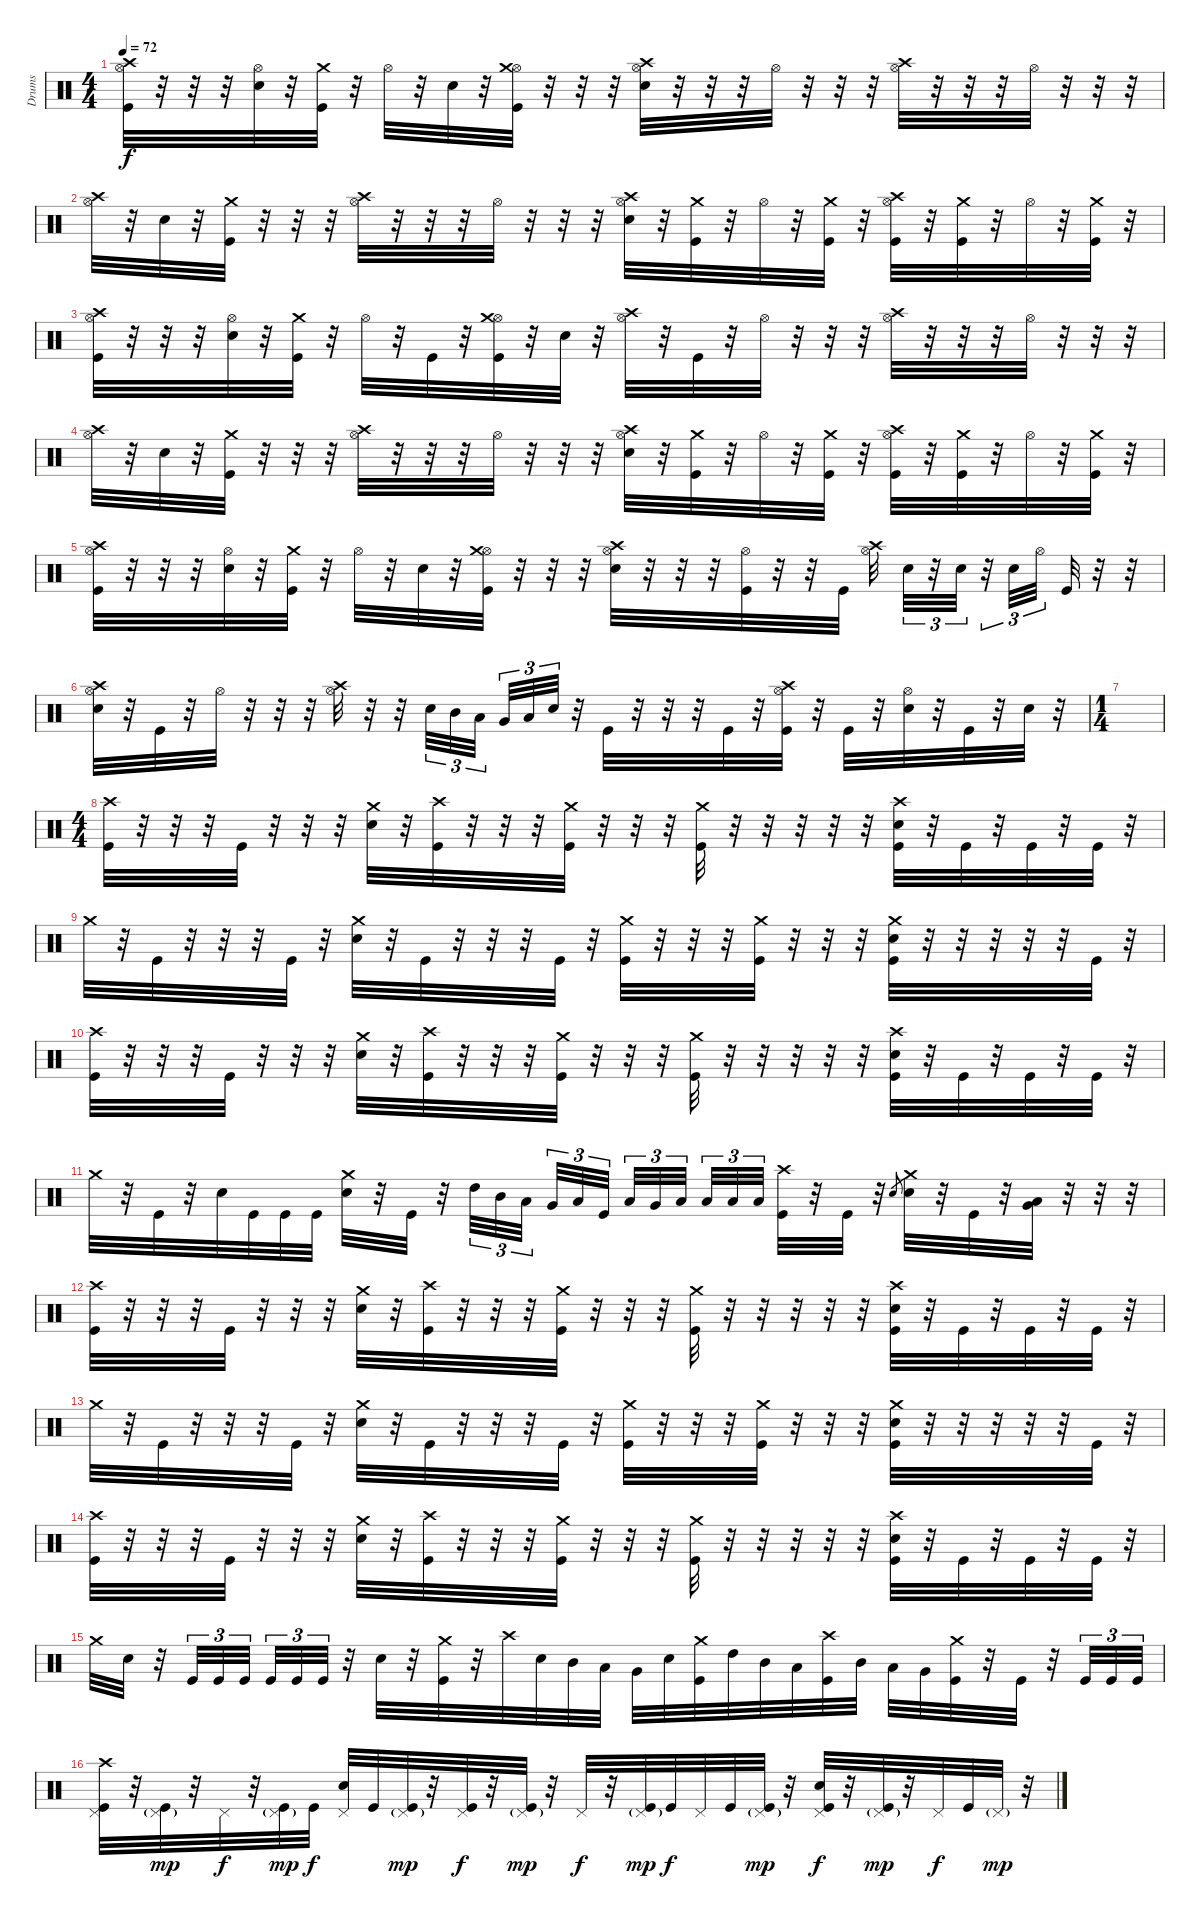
\track ("Drums" "Drums") {instrument percussion}
\staff {score}
\articulation defaults
\ts (4 4)
\tempo 72
\clef neutral
\ks c
("Hi-Hat (open)" "Crash high (hit)" "Kick (hit)").32{dy f} r.32 r.32 r.32 ("Hi-Hat (open)" "Electric Snare (hit)").32 r.32 ("Crash medium (hit)" "Kick (hit)").32 r.32 "Hi-Hat (open)".32 r.32 "Electric Snare (hit)".32 r.32 ("Hi-Hat (open)" "Crash medium (hit)" "Kick (hit)").32 r.32 r.32 r.32 ("Hi-Hat (open)" "Crash high (hit)" "Electric Snare (hit)").32 r.32 r.32 r.32 "Hi-Hat (open)".32 r.32 r.32 r.32 ("Hi-Hat (open)" "Crash high (hit)").32 r.32 r.32 r.32 "Hi-Hat (open)".32 r.32 r.32 r.32 |
("Hi-Hat (open)" "Crash high (hit)").32 r.32 "Electric Snare (hit)".32 r.32 ("Crash medium (hit)" "Kick (hit)").32 r.32 r.32 r.32 ("Hi-Hat (open)" "Crash high (hit)").32 r.32 r.32 r.32 "Hi-Hat (open)".32 r.32 r.32 r.32 ("Hi-Hat (open)" "Crash high (hit)" "Electric Snare (hit)").32 r.32 ("Crash medium (hit)" "Kick (hit)").32 r.32 "Hi-Hat (open)".32 r.32 ("Crash medium (hit)" "Kick (hit)").32 r.32 ("Hi-Hat (open)" "Crash high (hit)" "Kick (hit)").32 r.32 ("Crash medium (hit)" "Kick (hit)").32 r.32 "Hi-Hat (open)".32 r.32 ("Crash medium (hit)" "Kick (hit)").32 r.32 |
("Hi-Hat (open)" "Crash high (hit)" "Kick (hit)").32 r.32 r.32 r.32 ("Hi-Hat (open)" "Electric Snare (hit)").32 r.32 ("Crash medium (hit)" "Kick (hit)").32 r.32 "Hi-Hat (open)".32 r.32 "Kick (hit)".32 r.32 ("Hi-Hat (open)" "Crash medium (hit)" "Kick (hit)").32 r.32 "Electric Snare (hit)".32 r.32 ("Hi-Hat (open)" "Crash high (hit)").32 r.32 "Kick (hit)".32 r.32 "Hi-Hat (open)".32 r.32 r.32 r.32 ("Hi-Hat (open)" "Crash high (hit)").32 r.32 r.32 r.32 "Hi-Hat (open)".32 r.32 r.32 r.32 |
("Hi-Hat (open)" "Crash high (hit)").32 r.32 "Electric Snare (hit)".32 r.32 ("Crash medium (hit)" "Kick (hit)").32 r.32 r.32 r.32 ("Hi-Hat (open)" "Crash high (hit)").32 r.32 r.32 r.32 "Hi-Hat (open)".32 r.32 r.32 r.32 ("Hi-Hat (open)" "Crash high (hit)" "Electric Snare (hit)").32 r.32 ("Crash medium (hit)" "Kick (hit)").32 r.32 "Hi-Hat (open)".32 r.32 ("Crash medium (hit)" "Kick (hit)").32 r.32 ("Hi-Hat (open)" "Crash high (hit)" "Kick (hit)").32 r.32 ("Crash medium (hit)" "Kick (hit)").32 r.32 "Hi-Hat (open)".32 r.32 ("Crash medium (hit)" "Kick (hit)").32 r.32 |
("Hi-Hat (open)" "Crash high (hit)" "Kick (hit)").32 r.32 r.32 r.32 ("Hi-Hat (open)" "Electric Snare (hit)").32 r.32 ("Crash medium (hit)" "Kick (hit)").32 r.32 "Hi-Hat (open)".32 r.32 "Electric Snare (hit)".32 r.32 ("Hi-Hat (open)" "Crash medium (hit)" "Kick (hit)").32 r.32 r.32 r.32 ("Hi-Hat (open)" "Crash high (hit)" "Electric Snare (hit)").32 r.32 r.32 r.32 ("Hi-Hat (open)" "Kick (hit)").32 r.32 r.32 "Kick (hit)".32 ("Hi-Hat (open)" "Crash high (hit)").32 "Electric Snare (hit)".32{tu (3 2)} r.32{tu (3 2)} "Electric Snare (hit)".32{tu (3 2)} r.32{tu (3 2)} "Electric Snare (hit)".32{tu (3 2)} "Hi-Hat (open)".32{tu (3 2) beam splitsecondary} "Kick (hit)".32 r.32 r.32 |
("Hi-Hat (open)" "Crash high (hit)" "Electric Snare (hit)").32 r.32 "Kick (hit)".32 r.32 "Hi-Hat (open)".32 r.32 r.32 r.32 ("Hi-Hat (open)" "Crash high (hit)").32 r.32 r.32 "Electric Snare (hit)".32{tu (3 2)} "Mid Tom (hit)".32{tu (3 2)} "Low Tom (hit)".32{tu (3 2) beam splitsecondary} "Very Low Tom (hit)".32{tu (3 2)} "Low Floor Tom (hit)".32{tu (3 2)} "Electric Snare (hit)".32{tu (3 2)} r.32 "Kick (hit)".32 r.32 r.32 r.32 "Kick (hit)".32 r.32 ("Hi-Hat (open)" "Crash high (hit)" "Kick (hit)").32 r.32 "Kick (hit)".32 r.32 ("Hi-Hat (open)" "Electric Snare (hit)").32 r.32 "Kick (hit)".32 r.32 "Electric Snare (hit)".32 r.32 |
\ts (1 4)
|
\ts (4 4)
("Crash high (hit)" "Kick (hit)").32 r.32 r.32 r.32 "Kick (hit)".32 r.32 r.32 r.32 ("Crash medium (hit)" "Electric Snare (hit)").32 r.32 ("Crash high (hit)" "Kick (hit)").32 r.32 r.32 r.32 ("Crash medium (hit)" "Kick (hit)").32 r.32 r.32 r.32 ("Crash medium (hit)" "Kick (hit)").32 r.32 r.32 r.32 r.32 r.32 ("Crash high (hit)" "Electric Snare (hit)" "Kick (hit)").32 r.32 "Kick (hit)".32 r.32 "Kick (hit)".32 r.32 "Kick (hit)".32 r.32 |
"Crash medium (hit)".32 r.32 "Kick (hit)".32 r.32 r.32 r.32 "Kick (hit)".32 r.32 ("Crash medium (hit)" "Electric Snare (hit)").32 r.32 "Kick (hit)".32 r.32 r.32 r.32 "Kick (hit)".32 r.32 ("Crash medium (hit)" "Kick (hit)").32 r.32 r.32 r.32 ("Crash medium (hit)" "Kick (hit)").32 r.32 r.32 r.32 ("Crash medium (hit)" "Electric Snare (hit)" "Kick (hit)").32 r.32 r.32 r.32 r.32 r.32 "Kick (hit)".32 r.32 |
("Crash high (hit)" "Kick (hit)").32 r.32 r.32 r.32 "Kick (hit)".32 r.32 r.32 r.32 ("Crash medium (hit)" "Electric Snare (hit)").32 r.32 ("Crash high (hit)" "Kick (hit)").32 r.32 r.32 r.32 ("Crash medium (hit)" "Kick (hit)").32 r.32 r.32 r.32 ("Crash medium (hit)" "Kick (hit)").32 r.32 r.32 r.32 r.32 r.32 ("Crash high (hit)" "Electric Snare (hit)" "Kick (hit)").32 r.32 "Kick (hit)".32 r.32 "Kick (hit)".32 r.32 "Kick (hit)".32 r.32 |
"Crash medium (hit)".32 r.32 "Kick (hit)".32 r.32 "Electric Snare (hit)".32 "Kick (hit)".32 "Kick (hit)".32 "Kick (hit)".32 ("Crash medium (hit)" "Electric Snare (hit)").32 r.32 "Kick (hit)".32 r.32 "High Tom (hit)".32{tu (3 2)} "Mid Tom (hit)".32{tu (3 2)} "Low Tom (hit)".32{tu (3 2) beam splitsecondary} "Very Low Tom (hit)".32{tu (3 2)} "Low Floor Tom (hit)".32{tu (3 2)} "Kick (hit)".32{tu (3 2)} "Low Tom (hit)".32{tu (3 2)} "Very Low Tom (hit)".32{tu (3 2)} "Low Floor Tom (hit)".32{tu (3 2) beam splitsecondary} "Low Floor Tom (hit)".32{tu (3 2)} "Low Floor Tom (hit)".32{tu (3 2)} "Low Floor Tom (hit)".32{tu (3 2) beam splitsecondary} ("Crash high (hit)" "Kick (hit)").32 r.32 "Kick (hit)".32 r.32 "Electric Snare (hit)".8{gr} ("Crash medium (hit)" "Electric Snare (hit)").32 r.32 "Kick (hit)".32 r.32 ("Low Tom (hit)" "Very Low Tom (hit)").32 r.32 r.32 r.32 |
("Crash high (hit)" "Kick (hit)").32 r.32 r.32 r.32 "Kick (hit)".32 r.32 r.32 r.32 ("Crash medium (hit)" "Electric Snare (hit)").32 r.32 ("Crash high (hit)" "Kick (hit)").32 r.32 r.32 r.32 ("Crash medium (hit)" "Kick (hit)").32 r.32 r.32 r.32 ("Crash medium (hit)" "Kick (hit)").32 r.32 r.32 r.32 r.32 r.32 ("Crash high (hit)" "Electric Snare (hit)" "Kick (hit)").32 r.32 "Kick (hit)".32 r.32 "Kick (hit)".32 r.32 "Kick (hit)".32 r.32 |
"Crash medium (hit)".32 r.32 "Kick (hit)".32 r.32 r.32 r.32 "Kick (hit)".32 r.32 ("Crash medium (hit)" "Electric Snare (hit)").32 r.32 "Kick (hit)".32 r.32 r.32 r.32 "Kick (hit)".32 r.32 ("Crash medium (hit)" "Kick (hit)").32 r.32 r.32 r.32 ("Crash medium (hit)" "Kick (hit)").32 r.32 r.32 r.32 ("Crash medium (hit)" "Electric Snare (hit)" "Kick (hit)").32 r.32 r.32 r.32 r.32 r.32 "Kick (hit)".32 r.32 |
("Crash high (hit)" "Kick (hit)").32 r.32 r.32 r.32 "Kick (hit)".32 r.32 r.32 r.32 ("Crash medium (hit)" "Electric Snare (hit)").32 r.32 ("Crash high (hit)" "Kick (hit)").32 r.32 r.32 r.32 ("Crash medium (hit)" "Kick (hit)").32 r.32 r.32 r.32 ("Crash medium (hit)" "Kick (hit)").32 r.32 r.32 r.32 r.32 r.32 ("Crash high (hit)" "Electric Snare (hit)" "Kick (hit)").32 r.32 "Kick (hit)".32 r.32 "Kick (hit)".32 r.32 "Kick (hit)".32 r.32 |
"Crash medium (hit)".32 "Electric Snare (hit)".32 r.32 "Kick (hit)".32{tu (3 2)} "Kick (hit)".32{tu (3 2)} "Kick (hit)".32{tu (3 2) beam splitsecondary} "Kick (hit)".32{tu (3 2)} "Kick (hit)".32{tu (3 2)} "Kick (hit)".32{tu (3 2)} r.32 "Electric Snare (hit)".32 r.32 ("Crash medium (hit)" "Kick (hit)").32 r.32 "Crash high (hit)".32 "Electric Snare (hit)".32 "Mid Tom (hit)".32 "Low Tom (hit)".32 "Very Low Tom (hit)".32 "Electric Snare (hit)".32 ("Crash medium (hit)" "Kick (hit)").32 "High Tom (hit)".32 "Mid Tom (hit)".32 "Low Tom (hit)".32 ("Crash high (hit)" "Kick (hit)").32 "Mid Tom (hit)".32 "Low Tom (hit)".32 "Very Low Tom (hit)".32 ("Crash medium (hit)" "Kick (hit)").32 r.32 "Kick (hit)".32 r.32 "Kick (hit)".32{tu (3 2)} "Kick (hit)".32{tu (3 2)} "Kick (hit)".32{tu (3 2)} |
("Pedal Hi-Hat (hit)" "Crash high (hit)" "Kick (hit)").32 r.32 ("Pedal Hi-Hat (hit)"{g} "Kick (hit)").32{dy mp} r.32 "Pedal Hi-Hat (hit)".32{dy f} r.32 ("Pedal Hi-Hat (hit)"{g} "Kick (hit)").32{dy mp} "Kick (hit)".32{dy f} ("Pedal Hi-Hat (hit)" "Electric Snare (hit)").32 "Kick (hit)".32 ("Pedal Hi-Hat (hit)"{g} "Kick (hit)").32{dy mp} r.32 ("Pedal Hi-Hat (hit)" "Kick (hit)").32{dy f} r.32 ("Pedal Hi-Hat (hit)"{g} "Kick (hit)").32{dy mp} r.32 "Pedal Hi-Hat (hit)".32{dy f} r.32 ("Pedal Hi-Hat (hit)"{g} "Kick (hit)").32{dy mp} "Kick (hit)".32{dy f} "Pedal Hi-Hat (hit)".32 "Kick (hit)".32 ("Pedal Hi-Hat (hit)"{g} "Kick (hit)").32{dy mp} r.32 ("Pedal Hi-Hat (hit)" "Electric Snare (hit)" "Kick (hit)").32{dy f} r.32 ("Pedal Hi-Hat (hit)"{g} "Kick (hit)").32{dy mp} r.32 "Pedal Hi-Hat (hit)".32{dy f} "Kick (hit)".32 "Pedal Hi-Hat (hit)"{g}.32{dy mp} r.32
